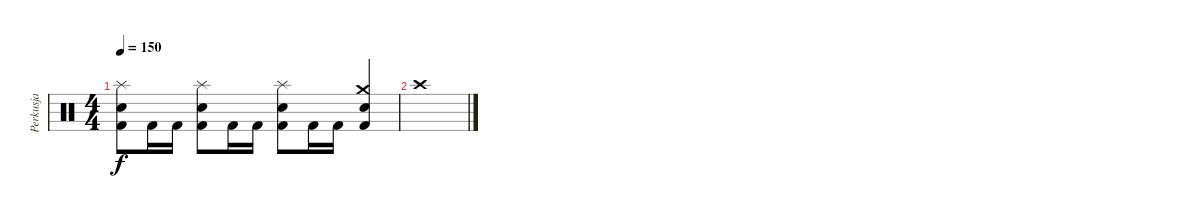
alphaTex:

\track ("Perkusja" "Perkusja") {instrument percussion}
\staff {score}
\articulation defaults
\ts (4 4)
\tempo 150
\clef neutral
\ks c
("Splash (hit)" "Snare (hit) 2" "Kick (hit) 2").8{dy f} "Kick (hit) 2".16 "Kick (hit) 2".16 ("Splash (hit)" "Snare (hit) 2" "Kick (hit) 2").8 "Kick (hit) 2".16 "Kick (hit) 2".16 ("Splash (hit)" "Snare (hit) 2" "Kick (hit) 2").8 "Kick (hit) 2".16 "Kick (hit) 2".16 ("Crash medium (hit)" "Electric Snare (hit)" "Kick (hit) 2").4 |
"Crash high (hit)".1
